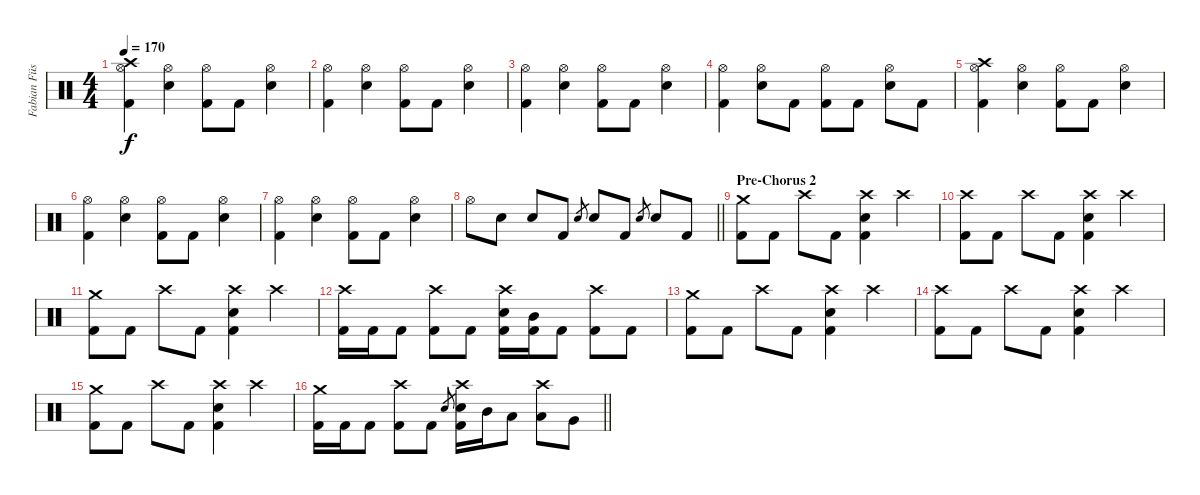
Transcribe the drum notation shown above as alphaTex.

\track ("Fabian Füss" "Fabian Füs") {instrument percussion}
\staff {score}
\articulation defaults
\ts (4 4)
\tempo 170
\clef neutral
\ks c
("Hi-Hat (open)" "Crash high (hit)" "Kick (hit) 2").4{dy f} ("Hi-Hat (open)" "Snare (hit) 2").4 ("Hi-Hat (open)" "Kick (hit) 2").8 "Kick (hit) 2".8 ("Hi-Hat (open)" "Snare (hit) 2").4 |
("Hi-Hat (open)" "Kick (hit) 2").4 ("Hi-Hat (open)" "Snare (hit) 2").4 ("Hi-Hat (open)" "Kick (hit) 2").8 "Kick (hit) 2".8 ("Hi-Hat (open)" "Snare (hit) 2").4 |
("Hi-Hat (open)" "Kick (hit) 2").4 ("Hi-Hat (open)" "Snare (hit) 2").4 ("Hi-Hat (open)" "Kick (hit) 2").8 "Kick (hit) 2".8 ("Hi-Hat (open)" "Snare (hit) 2").4 |
("Hi-Hat (open)" "Kick (hit) 2").4 ("Hi-Hat (open)" "Snare (hit) 2").8 "Kick (hit) 2".8 ("Hi-Hat (open)" "Kick (hit) 2").8 "Kick (hit) 2".8 ("Hi-Hat (open)" "Snare (hit) 2").8 "Kick (hit) 2".8 |
("Hi-Hat (open)" "Crash high (hit)" "Kick (hit) 2").4 ("Hi-Hat (open)" "Snare (hit) 2").4 ("Hi-Hat (open)" "Kick (hit) 2").8 "Kick (hit) 2".8 ("Hi-Hat (open)" "Snare (hit) 2").4 |
("Hi-Hat (open)" "Kick (hit) 2").4 ("Hi-Hat (open)" "Snare (hit) 2").4 ("Hi-Hat (open)" "Kick (hit) 2").8 "Kick (hit) 2".8 ("Hi-Hat (open)" "Snare (hit) 2").4 |
("Hi-Hat (open)" "Kick (hit) 2").4 ("Hi-Hat (open)" "Snare (hit) 2").4 ("Hi-Hat (open)" "Kick (hit) 2").8 "Kick (hit) 2".8 ("Hi-Hat (open)" "Snare (hit) 2").4 |
\barLineRight lightlight "Hi-Hat (open)".8 "Snare (hit) 2".8 "Snare (hit) 2".8 "Kick (hit) 2".8 "Snare (hit) 2".8{gr} "Snare (hit) 2".8 "Kick (hit) 2".8 "Snare (hit) 2".8{gr} "Snare (hit) 2".8 "Kick (hit) 2".8
|
\section ("" "Pre-Chorus 2")
("Crash medium (hit)" "Kick (hit) 2").8 "Kick (hit) 2".8 "Crash high (hit)".8 "Kick (hit) 2".8 ("Crash high (hit)" "Snare (hit) 2" "Kick (hit) 2").4 "Crash high (hit)".4 |
("Crash high (hit)" "Kick (hit) 2").8 "Kick (hit) 2".8 "Crash high (hit)".8 "Kick (hit) 2".8 ("Crash high (hit)" "Snare (hit) 2" "Kick (hit) 2").4 "Crash high (hit)".4 |
("Crash medium (hit)" "Kick (hit) 2").8 "Kick (hit) 2".8 "Crash high (hit)".8 "Kick (hit) 2".8 ("Crash high (hit)" "Snare (hit) 2" "Kick (hit) 2").4 "Crash high (hit)".4 |
("Crash high (hit)" "Kick (hit) 2").16 "Kick (hit) 2".16 "Kick (hit) 2".8 ("Crash high (hit)" "Kick (hit) 2").8 "Kick (hit) 2".8 ("Crash high (hit)" "Snare (hit) 2" "Kick (hit) 2").16 ("Mid Tom (hit)" "Kick (hit) 2").16 "Kick (hit) 2".8 ("Crash high (hit)" "Kick (hit) 2").8 "Kick (hit) 2".8 |
("Crash medium (hit)" "Kick (hit) 2").8 "Kick (hit) 2".8 "Crash high (hit)".8 "Kick (hit) 2".8 ("Crash high (hit)" "Snare (hit) 2" "Kick (hit) 2").4 "Crash high (hit)".4 |
("Crash high (hit)" "Kick (hit) 2").8 "Kick (hit) 2".8 "Crash high (hit)".8 "Kick (hit) 2".8 ("Crash high (hit)" "Snare (hit) 2" "Kick (hit) 2").4 "Crash high (hit)".4 |
("Crash medium (hit)" "Kick (hit) 2").8 "Kick (hit) 2".8 "Crash high (hit)".8 "Kick (hit) 2".8 ("Crash high (hit)" "Snare (hit) 2" "Kick (hit) 2").4 "Crash high (hit)".4 |
\barLineRight lightlight
("Crash medium (hit)" "Kick (hit) 2").16 "Kick (hit) 2".16 "Kick (hit) 2".8 ("Crash high (hit)" "Kick (hit) 2").8 "Kick (hit) 2".8 "Snare (hit) 2".8{gr} ("Crash high (hit)" "Snare (hit) 2" "Kick (hit) 2").16 "Mid Tom (hit)".16 "Low Tom (hit)".8 ("Crash high (hit)" "Low Tom (hit)").8 "Very Low Tom (hit)".8
